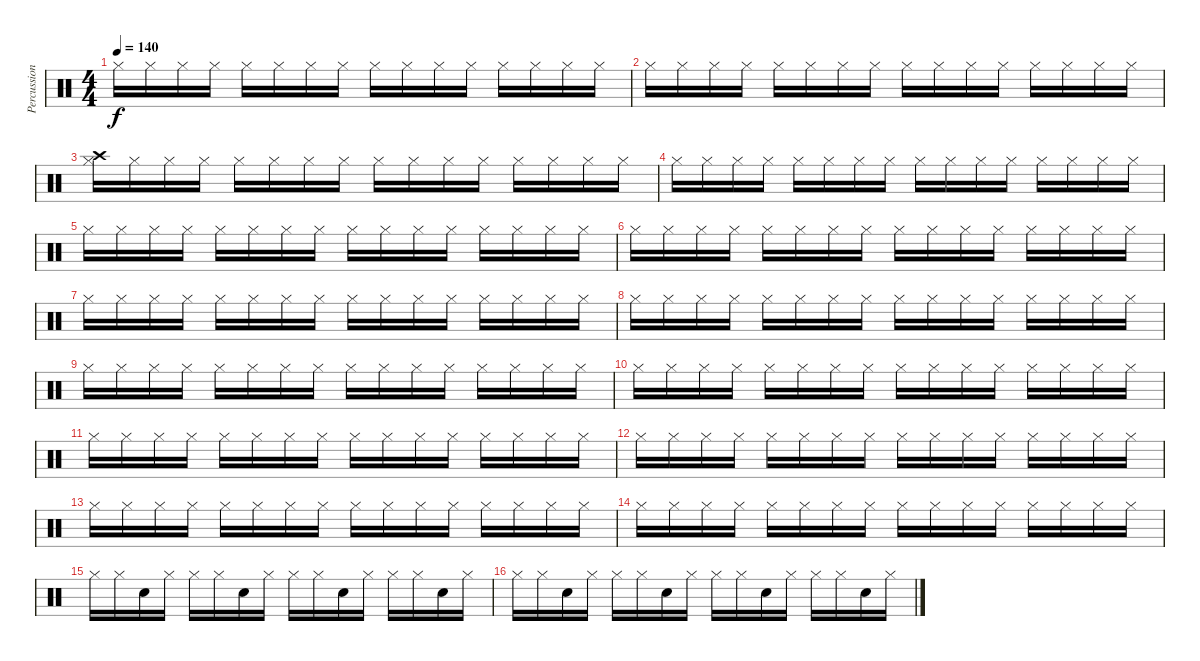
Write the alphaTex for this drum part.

\track ("Percussion" "Percussion") {instrument percussion}
\staff {score}
\articulation defaults
\ts (4 4)
\tempo 140
\clef neutral
\ks c "Hi-Hat (closed)".16{dy f} "Hi-Hat (closed)".16 "Hi-Hat (closed)".16 "Hi-Hat (closed)".16 "Hi-Hat (closed)".16 "Hi-Hat (closed)".16 "Hi-Hat (closed)".16 "Hi-Hat (closed)".16 "Hi-Hat (closed)".16 "Hi-Hat (closed)".16 "Hi-Hat (closed)".16 "Hi-Hat (closed)".16 "Hi-Hat (closed)".16 "Hi-Hat (closed)".16 "Hi-Hat (closed)".16 "Hi-Hat (closed)".16
|
"Hi-Hat (closed)".16 "Hi-Hat (closed)".16 "Hi-Hat (closed)".16 "Hi-Hat (closed)".16 "Hi-Hat (closed)".16 "Hi-Hat (closed)".16 "Hi-Hat (closed)".16 "Hi-Hat (closed)".16 "Hi-Hat (closed)".16 "Hi-Hat (closed)".16 "Hi-Hat (closed)".16 "Hi-Hat (closed)".16 "Hi-Hat (closed)".16 "Hi-Hat (closed)".16 "Hi-Hat (closed)".16 "Hi-Hat (closed)".16 |
("Crash high (hit)" "Hi-Hat (closed)").16 "Hi-Hat (closed)".16 "Hi-Hat (closed)".16 "Hi-Hat (closed)".16 "Hi-Hat (closed)".16 "Hi-Hat (closed)".16 "Hi-Hat (closed)".16 "Hi-Hat (closed)".16 "Hi-Hat (closed)".16 "Hi-Hat (closed)".16 "Hi-Hat (closed)".16 "Hi-Hat (closed)".16 "Hi-Hat (closed)".16 "Hi-Hat (closed)".16 "Hi-Hat (closed)".16 "Hi-Hat (closed)".16 |
"Hi-Hat (closed)".16 "Hi-Hat (closed)".16 "Hi-Hat (closed)".16 "Hi-Hat (closed)".16 "Hi-Hat (closed)".16 "Hi-Hat (closed)".16 "Hi-Hat (closed)".16 "Hi-Hat (closed)".16 "Hi-Hat (closed)".16 "Hi-Hat (closed)".16 "Hi-Hat (closed)".16 "Hi-Hat (closed)".16 "Hi-Hat (closed)".16 "Hi-Hat (closed)".16 "Hi-Hat (closed)".16 "Hi-Hat (closed)".16 |
"Hi-Hat (closed)".16 "Hi-Hat (closed)".16 "Hi-Hat (closed)".16 "Hi-Hat (closed)".16 "Hi-Hat (closed)".16 "Hi-Hat (closed)".16 "Hi-Hat (closed)".16 "Hi-Hat (closed)".16 "Hi-Hat (closed)".16 "Hi-Hat (closed)".16 "Hi-Hat (closed)".16 "Hi-Hat (closed)".16 "Hi-Hat (closed)".16 "Hi-Hat (closed)".16 "Hi-Hat (closed)".16 "Hi-Hat (closed)".16 |
"Hi-Hat (closed)".16 "Hi-Hat (closed)".16 "Hi-Hat (closed)".16 "Hi-Hat (closed)".16 "Hi-Hat (closed)".16 "Hi-Hat (closed)".16 "Hi-Hat (closed)".16 "Hi-Hat (closed)".16 "Hi-Hat (closed)".16 "Hi-Hat (closed)".16 "Hi-Hat (closed)".16 "Hi-Hat (closed)".16 "Hi-Hat (closed)".16 "Hi-Hat (closed)".16 "Hi-Hat (closed)".16 "Hi-Hat (closed)".16 |
"Hi-Hat (closed)".16 "Hi-Hat (closed)".16 "Hi-Hat (closed)".16 "Hi-Hat (closed)".16 "Hi-Hat (closed)".16 "Hi-Hat (closed)".16 "Hi-Hat (closed)".16 "Hi-Hat (closed)".16 "Hi-Hat (closed)".16 "Hi-Hat (closed)".16 "Hi-Hat (closed)".16 "Hi-Hat (closed)".16 "Hi-Hat (closed)".16 "Hi-Hat (closed)".16 "Hi-Hat (closed)".16 "Hi-Hat (closed)".16 |
"Hi-Hat (closed)".16 "Hi-Hat (closed)".16 "Hi-Hat (closed)".16 "Hi-Hat (closed)".16 "Hi-Hat (closed)".16 "Hi-Hat (closed)".16 "Hi-Hat (closed)".16 "Hi-Hat (closed)".16 "Hi-Hat (closed)".16 "Hi-Hat (closed)".16 "Hi-Hat (closed)".16 "Hi-Hat (closed)".16 "Hi-Hat (closed)".16 "Hi-Hat (closed)".16 "Hi-Hat (closed)".16 "Hi-Hat (closed)".16 |
"Hi-Hat (closed)".16 "Hi-Hat (closed)".16 "Hi-Hat (closed)".16 "Hi-Hat (closed)".16 "Hi-Hat (closed)".16 "Hi-Hat (closed)".16 "Hi-Hat (closed)".16 "Hi-Hat (closed)".16 "Hi-Hat (closed)".16 "Hi-Hat (closed)".16 "Hi-Hat (closed)".16 "Hi-Hat (closed)".16 "Hi-Hat (closed)".16 "Hi-Hat (closed)".16 "Hi-Hat (closed)".16 "Hi-Hat (closed)".16 |
"Hi-Hat (closed)".16 "Hi-Hat (closed)".16 "Hi-Hat (closed)".16 "Hi-Hat (closed)".16 "Hi-Hat (closed)".16 "Hi-Hat (closed)".16 "Hi-Hat (closed)".16 "Hi-Hat (closed)".16 "Hi-Hat (closed)".16 "Hi-Hat (closed)".16 "Hi-Hat (closed)".16 "Hi-Hat (closed)".16 "Hi-Hat (closed)".16 "Hi-Hat (closed)".16 "Hi-Hat (closed)".16 "Hi-Hat (closed)".16 |
"Hi-Hat (closed)".16 "Hi-Hat (closed)".16 "Hi-Hat (closed)".16 "Hi-Hat (closed)".16 "Hi-Hat (closed)".16 "Hi-Hat (closed)".16 "Hi-Hat (closed)".16 "Hi-Hat (closed)".16 "Hi-Hat (closed)".16 "Hi-Hat (closed)".16 "Hi-Hat (closed)".16 "Hi-Hat (closed)".16 "Hi-Hat (closed)".16 "Hi-Hat (closed)".16 "Hi-Hat (closed)".16 "Hi-Hat (closed)".16 |
"Hi-Hat (closed)".16 "Hi-Hat (closed)".16 "Hi-Hat (closed)".16 "Hi-Hat (closed)".16 "Hi-Hat (closed)".16 "Hi-Hat (closed)".16 "Hi-Hat (closed)".16 "Hi-Hat (closed)".16 "Hi-Hat (closed)".16 "Hi-Hat (closed)".16 "Hi-Hat (closed)".16 "Hi-Hat (closed)".16 "Hi-Hat (closed)".16 "Hi-Hat (closed)".16 "Hi-Hat (closed)".16 "Hi-Hat (closed)".16 |
"Hi-Hat (closed)".16 "Hi-Hat (closed)".16 "Hi-Hat (closed)".16 "Hi-Hat (closed)".16 "Hi-Hat (closed)".16 "Hi-Hat (closed)".16 "Hi-Hat (closed)".16 "Hi-Hat (closed)".16 "Hi-Hat (closed)".16 "Hi-Hat (closed)".16 "Hi-Hat (closed)".16 "Hi-Hat (closed)".16 "Hi-Hat (closed)".16 "Hi-Hat (closed)".16 "Hi-Hat (closed)".16 "Hi-Hat (closed)".16 |
"Hi-Hat (closed)".16 "Hi-Hat (closed)".16 "Hi-Hat (closed)".16 "Hi-Hat (closed)".16 "Hi-Hat (closed)".16 "Hi-Hat (closed)".16 "Hi-Hat (closed)".16 "Hi-Hat (closed)".16 "Hi-Hat (closed)".16 "Hi-Hat (closed)".16 "Hi-Hat (closed)".16 "Hi-Hat (closed)".16 "Hi-Hat (closed)".16 "Hi-Hat (closed)".16 "Hi-Hat (closed)".16 "Hi-Hat (closed)".16 |
"Hi-Hat (closed)".16 "Hi-Hat (closed)".16 "Electric Snare (hit)".16 "Hi-Hat (closed)".16 "Hi-Hat (closed)".16 "Hi-Hat (closed)".16 "Electric Snare (hit)".16 "Hi-Hat (closed)".16 "Hi-Hat (closed)".16 "Hi-Hat (closed)".16 "Electric Snare (hit)".16 "Hi-Hat (closed)".16 "Hi-Hat (closed)".16 "Hi-Hat (closed)".16 "Electric Snare (hit)".16 "Hi-Hat (closed)".16 |
"Hi-Hat (closed)".16 "Hi-Hat (closed)".16 "Electric Snare (hit)".16 "Hi-Hat (closed)".16 "Hi-Hat (closed)".16 "Hi-Hat (closed)".16 "Electric Snare (hit)".16 "Hi-Hat (closed)".16 "Hi-Hat (closed)".16 "Hi-Hat (closed)".16 "Electric Snare (hit)".16 "Hi-Hat (closed)".16 "Hi-Hat (closed)".16 "Hi-Hat (closed)".16 "Electric Snare (hit)".16 "Hi-Hat (closed)".16
